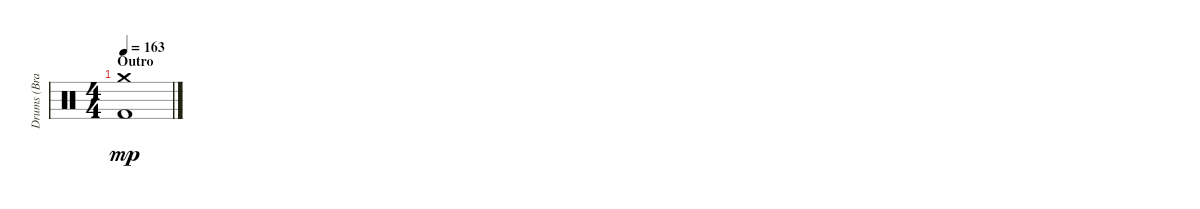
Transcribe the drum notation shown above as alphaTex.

\track ("Drums (Brandon Saller)" "Drums (Bra") {instrument percussion}
\staff {score}
\articulation defaults
\ts (4 4)
\section ("" "Outro")
\tempo 163
\clef neutral
\ks c
("Crash medium (hit)" "Kick (hit) 2").1{dy mp}
